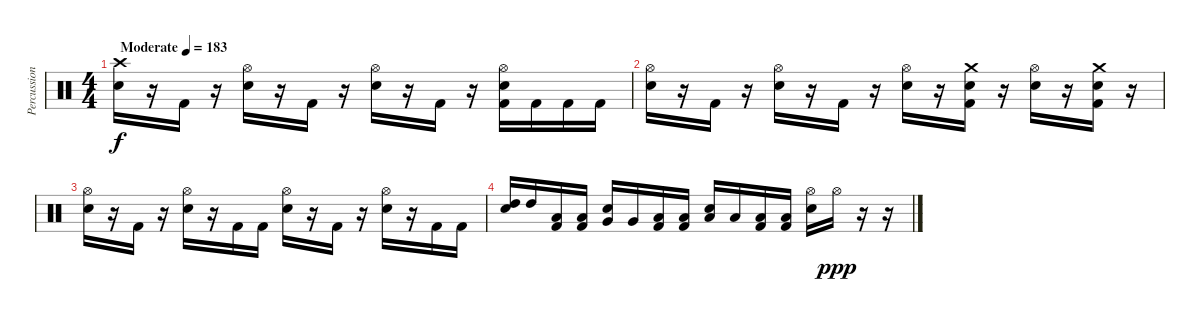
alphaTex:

\track ("Percussion" "Percussion") {instrument percussion}
\staff {score}
\articulation defaults
\ts (4 4)
\tempo (183 "Moderate")
\clef neutral
\ks c
("Crash high (hit)" "Snare (hit) 2").16{dy f} r.16 "Kick (hit) 2".16 r.16 ("Hi-Hat (open)" "Snare (hit) 2").16 r.16 "Kick (hit) 2".16 r.16 ("Hi-Hat (open)" "Snare (hit) 2").16 r.16 "Kick (hit) 2".16 r.16 ("Hi-Hat (open)" "Snare (hit) 2" "Kick (hit) 2").16 "Kick (hit) 2".16 "Kick (hit) 2".16 "Kick (hit) 2".16 |
("Hi-Hat (open)" "Snare (hit) 2").16 r.16 "Kick (hit) 2".16 r.16 ("Hi-Hat (open)" "Snare (hit) 2").16 r.16 "Kick (hit) 2".16 r.16 ("Hi-Hat (open)" "Snare (hit) 2").16 r.16 ("Crash medium (hit)" "Snare (hit) 2" "Kick (hit) 2").16 r.16 ("Hi-Hat (open)" "Snare (hit) 2").16 r.16 ("Crash medium (hit)" "Snare (hit) 2" "Kick (hit) 2").16 r.16 |
("Hi-Hat (open)" "Snare (hit) 2").16 r.16 "Kick (hit) 2".16 r.16 ("Hi-Hat (open)" "Snare (hit) 2").16 r.16 "Kick (hit) 2".16 "Kick (hit) 2".16 ("Hi-Hat (open)" "Snare (hit) 2").16 r.16 "Kick (hit) 2".16 r.16 ("Hi-Hat (open)" "Snare (hit) 2").16 r.16 "Kick (hit) 2".16 "Kick (hit) 2".16 |
("High Tom (hit)" "Snare (hit) 2").16 "High Tom (hit)".16 ("Low Floor Tom (hit)" "Kick (hit) 2").16 ("Low Floor Tom (hit)" "Kick (hit) 2").16 ("Very Low Tom (hit)" "Snare (hit) 2").16 "Very Low Tom (hit)".16 ("Low Floor Tom (hit)" "Kick (hit) 2").16 ("Low Floor Tom (hit)" "Kick (hit) 2").16 ("Low Tom (hit)" "Snare (hit) 2").16 "Low Tom (hit)".16 ("Low Floor Tom (hit)" "Kick (hit) 2").16 ("Low Floor Tom (hit)" "Kick (hit) 2").16 ("Hi-Hat (open)" "Snare (hit) 2").16 "Hi-Hat (open)".16{dy ppp} r.16 r.16
